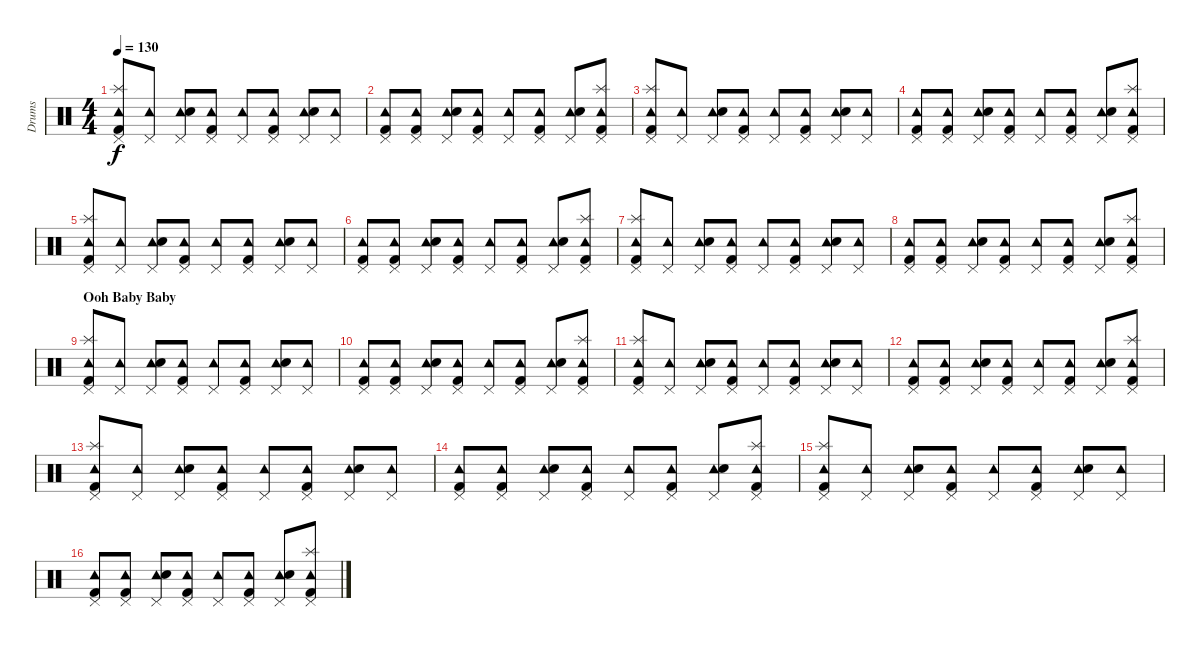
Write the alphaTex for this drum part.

\track ("Drums" "Drums") {instrument percussion}
\staff {score}
\articulation defaults
\ts (4 4)
\tempo 130
\clef neutral
\ks c
("Tambourine (hit)" "Pedal Hi-Hat (hit)" "Splash (hit)" "Kick (hit) 2").8{dy f} ("Tambourine (hit)" "Pedal Hi-Hat (hit)").8 ("Tambourine (hit)" "Pedal Hi-Hat (hit)" "Electric Snare (hit)").8 ("Tambourine (hit)" "Pedal Hi-Hat (hit)" "Kick (hit) 2").8 ("Tambourine (hit)" "Pedal Hi-Hat (hit)").8 ("Tambourine (hit)" "Pedal Hi-Hat (hit)" "Kick (hit) 2").8 ("Tambourine (hit)" "Pedal Hi-Hat (hit)" "Electric Snare (hit)").8 ("Tambourine (hit)" "Pedal Hi-Hat (hit)").8 |
("Tambourine (hit)" "Pedal Hi-Hat (hit)" "Kick (hit) 2").8 ("Tambourine (hit)" "Pedal Hi-Hat (hit)" "Kick (hit) 2").8 ("Tambourine (hit)" "Pedal Hi-Hat (hit)" "Electric Snare (hit)").8 ("Tambourine (hit)" "Pedal Hi-Hat (hit)" "Kick (hit) 2").8 ("Tambourine (hit)" "Pedal Hi-Hat (hit)").8 ("Tambourine (hit)" "Pedal Hi-Hat (hit)" "Kick (hit) 2").8 ("Tambourine (hit)" "Pedal Hi-Hat (hit)" "Electric Snare (hit)").8 ("Tambourine (hit)" "Pedal Hi-Hat (hit)" "Splash (hit)" "Kick (hit) 2").8 |
("Tambourine (hit)" "Pedal Hi-Hat (hit)" "Splash (hit)" "Kick (hit) 2").8 ("Tambourine (hit)" "Pedal Hi-Hat (hit)").8 ("Tambourine (hit)" "Pedal Hi-Hat (hit)" "Electric Snare (hit)").8 ("Tambourine (hit)" "Pedal Hi-Hat (hit)" "Kick (hit) 2").8 ("Tambourine (hit)" "Pedal Hi-Hat (hit)").8 ("Tambourine (hit)" "Pedal Hi-Hat (hit)" "Kick (hit) 2").8 ("Tambourine (hit)" "Pedal Hi-Hat (hit)" "Electric Snare (hit)").8 ("Tambourine (hit)" "Pedal Hi-Hat (hit)").8 |
("Tambourine (hit)" "Pedal Hi-Hat (hit)" "Kick (hit) 2").8 ("Tambourine (hit)" "Pedal Hi-Hat (hit)" "Kick (hit) 2").8 ("Tambourine (hit)" "Pedal Hi-Hat (hit)" "Electric Snare (hit)").8 ("Tambourine (hit)" "Pedal Hi-Hat (hit)" "Kick (hit) 2").8 ("Tambourine (hit)" "Pedal Hi-Hat (hit)").8 ("Tambourine (hit)" "Pedal Hi-Hat (hit)" "Kick (hit) 2").8 ("Tambourine (hit)" "Pedal Hi-Hat (hit)" "Electric Snare (hit)").8 ("Tambourine (hit)" "Pedal Hi-Hat (hit)" "Splash (hit)" "Kick (hit) 2").8 |
("Tambourine (hit)" "Pedal Hi-Hat (hit)" "Splash (hit)" "Kick (hit) 2").8 ("Tambourine (hit)" "Pedal Hi-Hat (hit)").8 ("Tambourine (hit)" "Pedal Hi-Hat (hit)" "Electric Snare (hit)").8 ("Tambourine (hit)" "Pedal Hi-Hat (hit)" "Kick (hit) 2").8 ("Tambourine (hit)" "Pedal Hi-Hat (hit)").8 ("Tambourine (hit)" "Pedal Hi-Hat (hit)" "Kick (hit) 2").8 ("Tambourine (hit)" "Pedal Hi-Hat (hit)" "Electric Snare (hit)").8 ("Tambourine (hit)" "Pedal Hi-Hat (hit)").8 |
("Tambourine (hit)" "Pedal Hi-Hat (hit)" "Kick (hit) 2").8 ("Tambourine (hit)" "Pedal Hi-Hat (hit)" "Kick (hit) 2").8 ("Tambourine (hit)" "Pedal Hi-Hat (hit)" "Electric Snare (hit)").8 ("Tambourine (hit)" "Pedal Hi-Hat (hit)" "Kick (hit) 2").8 ("Tambourine (hit)" "Pedal Hi-Hat (hit)").8 ("Tambourine (hit)" "Pedal Hi-Hat (hit)" "Kick (hit) 2").8 ("Tambourine (hit)" "Pedal Hi-Hat (hit)" "Electric Snare (hit)").8 ("Tambourine (hit)" "Pedal Hi-Hat (hit)" "Splash (hit)" "Kick (hit) 2").8 |
("Tambourine (hit)" "Pedal Hi-Hat (hit)" "Splash (hit)" "Kick (hit) 2").8 ("Tambourine (hit)" "Pedal Hi-Hat (hit)").8 ("Tambourine (hit)" "Pedal Hi-Hat (hit)" "Electric Snare (hit)").8 ("Tambourine (hit)" "Pedal Hi-Hat (hit)" "Kick (hit) 2").8 ("Tambourine (hit)" "Pedal Hi-Hat (hit)").8 ("Tambourine (hit)" "Pedal Hi-Hat (hit)" "Kick (hit) 2").8 ("Tambourine (hit)" "Pedal Hi-Hat (hit)" "Electric Snare (hit)").8 ("Tambourine (hit)" "Pedal Hi-Hat (hit)").8 |
("Tambourine (hit)" "Pedal Hi-Hat (hit)" "Kick (hit) 2").8 ("Tambourine (hit)" "Pedal Hi-Hat (hit)" "Kick (hit) 2").8 ("Tambourine (hit)" "Pedal Hi-Hat (hit)" "Electric Snare (hit)").8 ("Tambourine (hit)" "Pedal Hi-Hat (hit)" "Kick (hit) 2").8 ("Tambourine (hit)" "Pedal Hi-Hat (hit)").8 ("Tambourine (hit)" "Pedal Hi-Hat (hit)" "Kick (hit) 2").8 ("Tambourine (hit)" "Pedal Hi-Hat (hit)" "Electric Snare (hit)").8 ("Tambourine (hit)" "Pedal Hi-Hat (hit)" "Splash (hit)" "Kick (hit) 2").8 |
\section ("" "Ooh Baby Baby")
("Tambourine (hit)" "Pedal Hi-Hat (hit)" "Splash (hit)" "Kick (hit) 2").8 ("Tambourine (hit)" "Pedal Hi-Hat (hit)").8 ("Tambourine (hit)" "Pedal Hi-Hat (hit)" "Electric Snare (hit)").8 ("Tambourine (hit)" "Pedal Hi-Hat (hit)" "Kick (hit) 2").8 ("Tambourine (hit)" "Pedal Hi-Hat (hit)").8 ("Tambourine (hit)" "Pedal Hi-Hat (hit)" "Kick (hit) 2").8 ("Tambourine (hit)" "Pedal Hi-Hat (hit)" "Electric Snare (hit)").8 ("Tambourine (hit)" "Pedal Hi-Hat (hit)").8 |
("Tambourine (hit)" "Pedal Hi-Hat (hit)" "Kick (hit) 2").8 ("Tambourine (hit)" "Pedal Hi-Hat (hit)" "Kick (hit) 2").8 ("Tambourine (hit)" "Pedal Hi-Hat (hit)" "Electric Snare (hit)").8 ("Tambourine (hit)" "Pedal Hi-Hat (hit)" "Kick (hit) 2").8 ("Tambourine (hit)" "Pedal Hi-Hat (hit)").8 ("Tambourine (hit)" "Pedal Hi-Hat (hit)" "Kick (hit) 2").8 ("Tambourine (hit)" "Pedal Hi-Hat (hit)" "Electric Snare (hit)").8 ("Tambourine (hit)" "Pedal Hi-Hat (hit)" "Splash (hit)" "Kick (hit) 2").8 |
("Tambourine (hit)" "Pedal Hi-Hat (hit)" "Splash (hit)" "Kick (hit) 2").8 ("Tambourine (hit)" "Pedal Hi-Hat (hit)").8 ("Tambourine (hit)" "Pedal Hi-Hat (hit)" "Electric Snare (hit)").8 ("Tambourine (hit)" "Pedal Hi-Hat (hit)" "Kick (hit) 2").8 ("Tambourine (hit)" "Pedal Hi-Hat (hit)").8 ("Tambourine (hit)" "Pedal Hi-Hat (hit)" "Kick (hit) 2").8 ("Tambourine (hit)" "Pedal Hi-Hat (hit)" "Electric Snare (hit)").8 ("Tambourine (hit)" "Pedal Hi-Hat (hit)").8 |
("Tambourine (hit)" "Pedal Hi-Hat (hit)" "Kick (hit) 2").8 ("Tambourine (hit)" "Pedal Hi-Hat (hit)" "Kick (hit) 2").8 ("Tambourine (hit)" "Pedal Hi-Hat (hit)" "Electric Snare (hit)").8 ("Tambourine (hit)" "Pedal Hi-Hat (hit)" "Kick (hit) 2").8 ("Tambourine (hit)" "Pedal Hi-Hat (hit)").8 ("Tambourine (hit)" "Pedal Hi-Hat (hit)" "Kick (hit) 2").8 ("Tambourine (hit)" "Pedal Hi-Hat (hit)" "Electric Snare (hit)").8 ("Tambourine (hit)" "Pedal Hi-Hat (hit)" "Splash (hit)" "Kick (hit) 2").8 |
("Tambourine (hit)" "Pedal Hi-Hat (hit)" "Splash (hit)" "Kick (hit) 2").8 ("Tambourine (hit)" "Pedal Hi-Hat (hit)").8 ("Tambourine (hit)" "Pedal Hi-Hat (hit)" "Electric Snare (hit)").8 ("Tambourine (hit)" "Pedal Hi-Hat (hit)" "Kick (hit) 2").8 ("Tambourine (hit)" "Pedal Hi-Hat (hit)").8 ("Tambourine (hit)" "Pedal Hi-Hat (hit)" "Kick (hit) 2").8 ("Tambourine (hit)" "Pedal Hi-Hat (hit)" "Electric Snare (hit)").8 ("Tambourine (hit)" "Pedal Hi-Hat (hit)").8 |
("Tambourine (hit)" "Pedal Hi-Hat (hit)" "Kick (hit) 2").8 ("Tambourine (hit)" "Pedal Hi-Hat (hit)" "Kick (hit) 2").8 ("Tambourine (hit)" "Pedal Hi-Hat (hit)" "Electric Snare (hit)").8 ("Tambourine (hit)" "Pedal Hi-Hat (hit)" "Kick (hit) 2").8 ("Tambourine (hit)" "Pedal Hi-Hat (hit)").8 ("Tambourine (hit)" "Pedal Hi-Hat (hit)" "Kick (hit) 2").8 ("Tambourine (hit)" "Pedal Hi-Hat (hit)" "Electric Snare (hit)").8 ("Tambourine (hit)" "Pedal Hi-Hat (hit)" "Splash (hit)" "Kick (hit) 2").8 |
("Tambourine (hit)" "Pedal Hi-Hat (hit)" "Splash (hit)" "Kick (hit) 2").8 ("Tambourine (hit)" "Pedal Hi-Hat (hit)").8 ("Tambourine (hit)" "Pedal Hi-Hat (hit)" "Electric Snare (hit)").8 ("Tambourine (hit)" "Pedal Hi-Hat (hit)" "Kick (hit) 2").8 ("Tambourine (hit)" "Pedal Hi-Hat (hit)").8 ("Tambourine (hit)" "Pedal Hi-Hat (hit)" "Kick (hit) 2").8 ("Tambourine (hit)" "Pedal Hi-Hat (hit)" "Electric Snare (hit)").8 ("Tambourine (hit)" "Pedal Hi-Hat (hit)").8 |
("Tambourine (hit)" "Pedal Hi-Hat (hit)" "Kick (hit) 2").8 ("Tambourine (hit)" "Pedal Hi-Hat (hit)" "Kick (hit) 2").8 ("Tambourine (hit)" "Pedal Hi-Hat (hit)" "Electric Snare (hit)").8 ("Tambourine (hit)" "Pedal Hi-Hat (hit)" "Kick (hit) 2").8 ("Tambourine (hit)" "Pedal Hi-Hat (hit)").8 ("Tambourine (hit)" "Pedal Hi-Hat (hit)" "Kick (hit) 2").8 ("Tambourine (hit)" "Pedal Hi-Hat (hit)" "Electric Snare (hit)").8 ("Tambourine (hit)" "Pedal Hi-Hat (hit)" "Splash (hit)" "Kick (hit) 2").8
